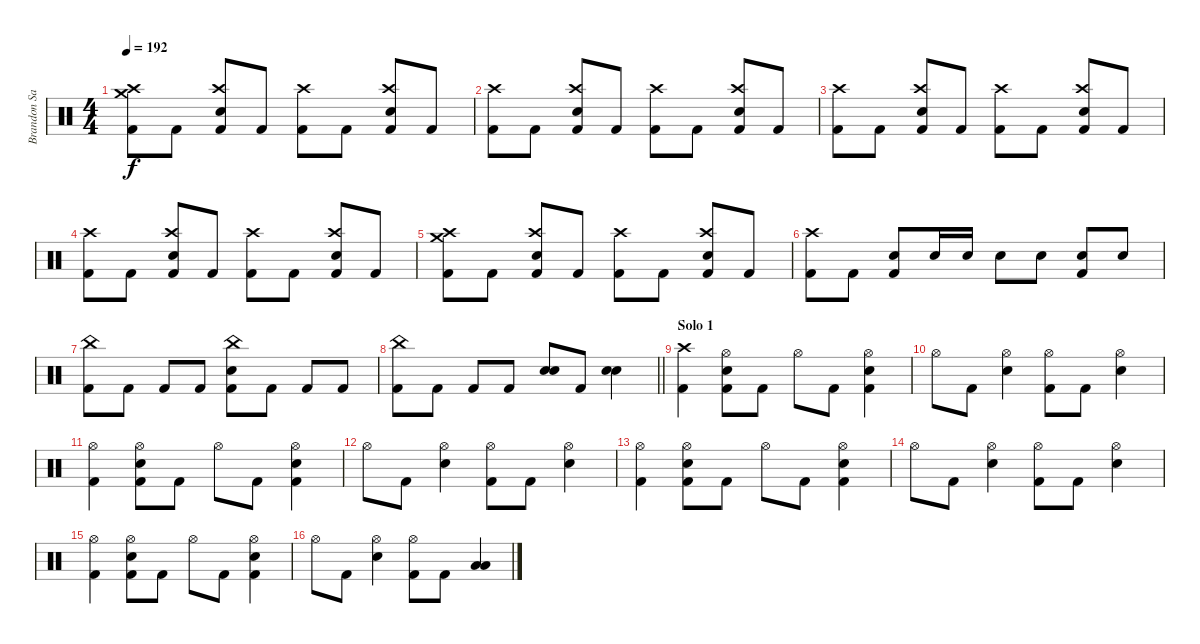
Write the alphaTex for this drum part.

\track ("Brandon Saller" "Brandon Sa") {instrument percussion}
\staff {score}
\articulation defaults
\ts (4 4)
\tempo 192
\clef neutral
\ks aminor
("Kick (hit) 2" "Crash medium (hit)" "Crash high (hit)").8{dy f} "Kick (hit) 2".8 ("Kick (hit) 2" "Snare (hit) 2" "Crash high (hit)").8 "Kick (hit) 2".8 ("Kick (hit) 2" "Crash high (hit)").8 "Kick (hit) 2".8 ("Kick (hit) 2" "Snare (hit) 2" "Crash high (hit)").8 "Kick (hit) 2".8 |
("Kick (hit) 2" "Crash high (hit)").8 "Kick (hit) 2".8 ("Kick (hit) 2" "Snare (hit) 2" "Crash high (hit)").8 "Kick (hit) 2".8 ("Kick (hit) 2" "Crash high (hit)").8 "Kick (hit) 2".8 ("Kick (hit) 2" "Snare (hit) 2" "Crash high (hit)").8 "Kick (hit) 2".8 |
("Kick (hit) 2" "Crash high (hit)").8 "Kick (hit) 2".8 ("Kick (hit) 2" "Snare (hit) 2" "Crash high (hit)").8 "Kick (hit) 2".8 ("Kick (hit) 2" "Crash high (hit)").8 "Kick (hit) 2".8 ("Kick (hit) 2" "Snare (hit) 2" "Crash high (hit)").8 "Kick (hit) 2".8 |
("Kick (hit) 2" "Crash high (hit)").8 "Kick (hit) 2".8 ("Kick (hit) 2" "Snare (hit) 2" "Crash high (hit)").8 "Kick (hit) 2".8 ("Kick (hit) 2" "Crash high (hit)").8 "Kick (hit) 2".8 ("Kick (hit) 2" "Snare (hit) 2" "Crash high (hit)").8 "Kick (hit) 2".8 |
("Kick (hit) 2" "Crash medium (hit)" "Crash high (hit)").8 "Kick (hit) 2".8 ("Kick (hit) 2" "Snare (hit) 2" "Crash high (hit)").8 "Kick (hit) 2".8 ("Kick (hit) 2" "Crash high (hit)").8 "Kick (hit) 2".8 ("Kick (hit) 2" "Snare (hit) 2" "Crash high (hit)").8 "Kick (hit) 2".8 |
("Kick (hit) 2" "Crash high (hit)").8 "Kick (hit) 2".8 ("Kick (hit) 2" "Snare (hit) 2").8 "Snare (hit) 2".16 "Snare (hit) 2".16 "Snare (hit) 2".8 "Snare (hit) 2".8 ("Kick (hit) 2" "Snare (hit) 2").8 "Snare (hit) 2".8 |
("Kick (hit) 2" "China (hit)").8 "Kick (hit) 2".8 "Kick (hit) 2".8 "Kick (hit) 2".8 ("Kick (hit) 2" "Snare (hit) 2" "China (hit)").8 "Kick (hit) 2".8 "Kick (hit) 2".8 "Kick (hit) 2".8 |
\barLineRight lightlight
("Kick (hit) 2" "China (hit)").8 "Kick (hit) 2".8 "Kick (hit) 2".8 "Kick (hit) 2".8 ("Snare (hit) 2" "Snare (hit) 2").8 "Kick (hit) 2".8 ("Snare (hit) 2" "Snare (hit) 2").4 |
\section ("" "Solo 1")
("Kick (hit) 2" "Crash high (hit)").4 ("Kick (hit) 2" "Snare (hit) 2" "Hi-Hat (open)").8 "Kick (hit) 2".8 "Hi-Hat (open)".8 "Kick (hit) 2".8 ("Kick (hit) 2" "Snare (hit) 2" "Hi-Hat (open)").4 |
"Hi-Hat (open)".8 "Kick (hit) 2".8 ("Snare (hit) 2" "Hi-Hat (open)").4 ("Kick (hit) 2" "Hi-Hat (open)").8 "Kick (hit) 2".8 ("Snare (hit) 2" "Hi-Hat (open)").4 |
("Kick (hit) 2" "Hi-Hat (open)").4 ("Kick (hit) 2" "Snare (hit) 2" "Hi-Hat (open)").8 "Kick (hit) 2".8 "Hi-Hat (open)".8 "Kick (hit) 2".8 ("Kick (hit) 2" "Snare (hit) 2" "Hi-Hat (open)").4 |
"Hi-Hat (open)".8 "Kick (hit) 2".8 ("Snare (hit) 2" "Hi-Hat (open)").4 ("Kick (hit) 2" "Hi-Hat (open)").8 "Kick (hit) 2".8 ("Snare (hit) 2" "Hi-Hat (open)").4 |
("Kick (hit) 2" "Hi-Hat (open)").4 ("Kick (hit) 2" "Snare (hit) 2" "Hi-Hat (open)").8 "Kick (hit) 2".8 "Hi-Hat (open)".8 "Kick (hit) 2".8 ("Kick (hit) 2" "Snare (hit) 2" "Hi-Hat (open)").4 |
"Hi-Hat (open)".8 "Kick (hit) 2".8 ("Snare (hit) 2" "Hi-Hat (open)").4 ("Kick (hit) 2" "Hi-Hat (open)").8 "Kick (hit) 2".8 ("Snare (hit) 2" "Hi-Hat (open)").4 |
("Kick (hit) 2" "Hi-Hat (open)").4 ("Kick (hit) 2" "Snare (hit) 2" "Hi-Hat (open)").8 "Kick (hit) 2".8 "Hi-Hat (open)".8 "Kick (hit) 2".8 ("Kick (hit) 2" "Snare (hit) 2" "Hi-Hat (open)").4 |
"Hi-Hat (open)".8 "Kick (hit) 2".8 ("Snare (hit) 2" "Hi-Hat (open)").4 ("Kick (hit) 2" "Hi-Hat (open)").8 "Kick (hit) 2".8 ("Low Tom (hit)" "Low Floor Tom (hit)").4
